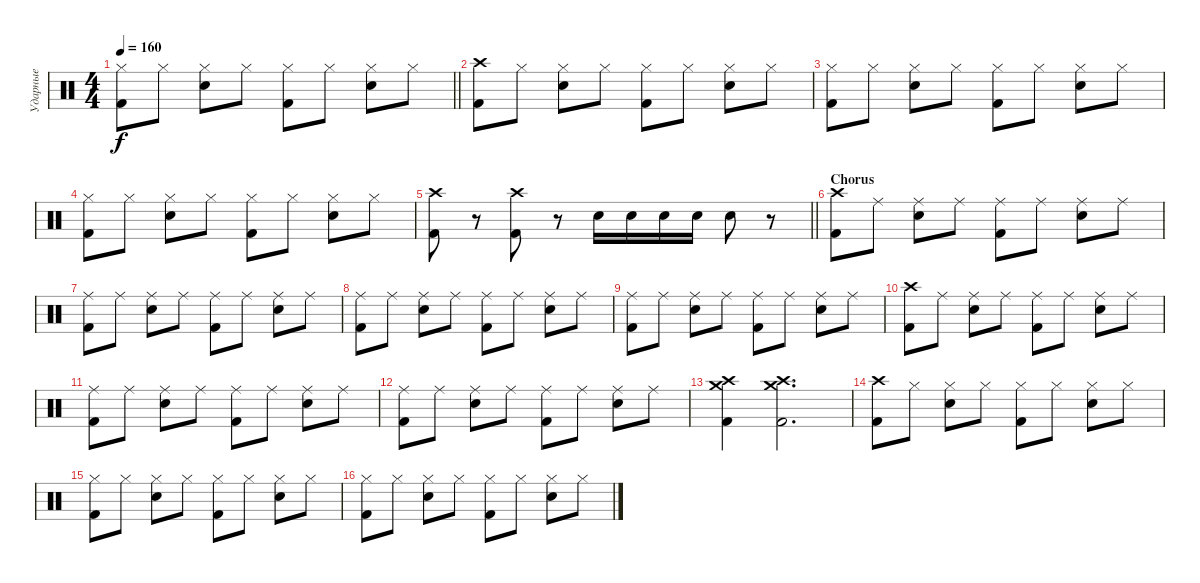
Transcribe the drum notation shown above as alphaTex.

\track ("Ударные" "Ударные") {instrument percussion}
\staff {score}
\articulation defaults
\ts (4 4)
\tempo 160
\clef neutral
\barLineRight lightlight
\ks c
("Hi-Hat (closed)" "Kick (hit) 2").8{dy f} "Hi-Hat (closed)".8 ("Hi-Hat (closed)" "Snare (hit) 2").8 "Hi-Hat (closed)".8 ("Hi-Hat (closed)" "Kick (hit) 2").8 "Hi-Hat (closed)".8 ("Hi-Hat (closed)" "Snare (hit) 2").8 "Hi-Hat (closed)".8 |
("Crash high (hit)" "Kick (hit) 2").8 "Hi-Hat (closed)".8 ("Hi-Hat (closed)" "Snare (hit) 2").8 "Hi-Hat (closed)".8 ("Hi-Hat (closed)" "Kick (hit) 2").8 "Hi-Hat (closed)".8 ("Hi-Hat (closed)" "Snare (hit) 2").8 "Hi-Hat (closed)".8 |
("Hi-Hat (closed)" "Kick (hit) 2").8 "Hi-Hat (closed)".8 ("Hi-Hat (closed)" "Snare (hit) 2").8 "Hi-Hat (closed)".8 ("Hi-Hat (closed)" "Kick (hit) 2").8 "Hi-Hat (closed)".8 ("Hi-Hat (closed)" "Snare (hit) 2").8 "Hi-Hat (closed)".8 |
("Hi-Hat (closed)" "Kick (hit) 2").8 "Hi-Hat (closed)".8 ("Hi-Hat (closed)" "Snare (hit) 2").8 "Hi-Hat (closed)".8 ("Hi-Hat (closed)" "Kick (hit) 2").8 "Hi-Hat (closed)".8 ("Hi-Hat (closed)" "Snare (hit) 2").8 "Hi-Hat (closed)".8 |
\barLineRight lightlight
("Crash high (hit)" "Kick (hit) 2").8 r.8 ("Crash high (hit)" "Kick (hit) 2").8 r.8 "Snare (hit) 2".16 "Snare (hit) 2".16 "Snare (hit) 2".16 "Snare (hit) 2".16 "Snare (hit) 2".8 r.8 |
\section ("" "Chorus")
("Crash high (hit)" "Kick (hit) 2").8 "Ride (middle)".8 ("Ride (middle)" "Snare (hit) 2").8 "Ride (middle)".8 ("Ride (middle)" "Kick (hit) 2").8 "Ride (middle)".8 ("Ride (middle)" "Snare (hit) 2").8 "Ride (middle)".8 |
("Ride (middle)" "Kick (hit) 2").8 "Ride (middle)".8 ("Ride (middle)" "Snare (hit) 2").8 "Ride (middle)".8 ("Ride (middle)" "Kick (hit) 2").8 "Ride (middle)".8 ("Ride (middle)" "Snare (hit) 2").8 "Ride (middle)".8 |
("Ride (middle)" "Kick (hit) 2").8 "Ride (middle)".8 ("Ride (middle)" "Snare (hit) 2").8 "Ride (middle)".8 ("Ride (middle)" "Kick (hit) 2").8 "Ride (middle)".8 ("Ride (middle)" "Snare (hit) 2").8 "Ride (middle)".8 |
("Ride (middle)" "Kick (hit) 2").8 "Ride (middle)".8 ("Ride (middle)" "Snare (hit) 2").8 "Ride (middle)".8 ("Ride (middle)" "Kick (hit) 2").8 "Ride (middle)".8 ("Ride (middle)" "Snare (hit) 2").8 "Ride (middle)".8 |
("Crash high (hit)" "Kick (hit) 2").8 "Ride (middle)".8 ("Ride (middle)" "Snare (hit) 2").8 "Ride (middle)".8 ("Ride (middle)" "Kick (hit) 2").8 "Ride (middle)".8 ("Ride (middle)" "Snare (hit) 2").8 "Ride (middle)".8 |
("Ride (middle)" "Kick (hit) 2").8 "Ride (middle)".8 ("Ride (middle)" "Snare (hit) 2").8 "Ride (middle)".8 ("Ride (middle)" "Kick (hit) 2").8 "Ride (middle)".8 ("Ride (middle)" "Snare (hit) 2").8 "Ride (middle)".8 |
("Ride (middle)" "Kick (hit) 2").8 "Ride (middle)".8 ("Ride (middle)" "Snare (hit) 2").8 "Ride (middle)".8 ("Ride (middle)" "Kick (hit) 2").8 "Ride (middle)".8 ("Ride (middle)" "Snare (hit) 2").8 "Ride (middle)".8 |
("Crash high (hit)" "Crash medium (hit)" "Kick (hit) 2").4 ("Crash high (hit)" "Crash medium (hit)" "Kick (hit) 2").2{d} |
("Crash high (hit)" "Kick (hit) 2").8 "Hi-Hat (closed)".8 ("Hi-Hat (closed)" "Snare (hit) 2").8 "Hi-Hat (closed)".8 ("Hi-Hat (closed)" "Kick (hit) 2").8 "Hi-Hat (closed)".8 ("Hi-Hat (closed)" "Snare (hit) 2").8 "Hi-Hat (closed)".8 |
("Hi-Hat (closed)" "Kick (hit) 2").8 "Hi-Hat (closed)".8 ("Hi-Hat (closed)" "Snare (hit) 2").8 "Hi-Hat (closed)".8 ("Hi-Hat (closed)" "Kick (hit) 2").8 "Hi-Hat (closed)".8 ("Hi-Hat (closed)" "Snare (hit) 2").8 "Hi-Hat (closed)".8 |
("Hi-Hat (closed)" "Kick (hit) 2").8 "Hi-Hat (closed)".8 ("Hi-Hat (closed)" "Snare (hit) 2").8 "Hi-Hat (closed)".8 ("Hi-Hat (closed)" "Kick (hit) 2").8 "Hi-Hat (closed)".8 ("Hi-Hat (closed)" "Snare (hit) 2").8 "Hi-Hat (closed)".8
